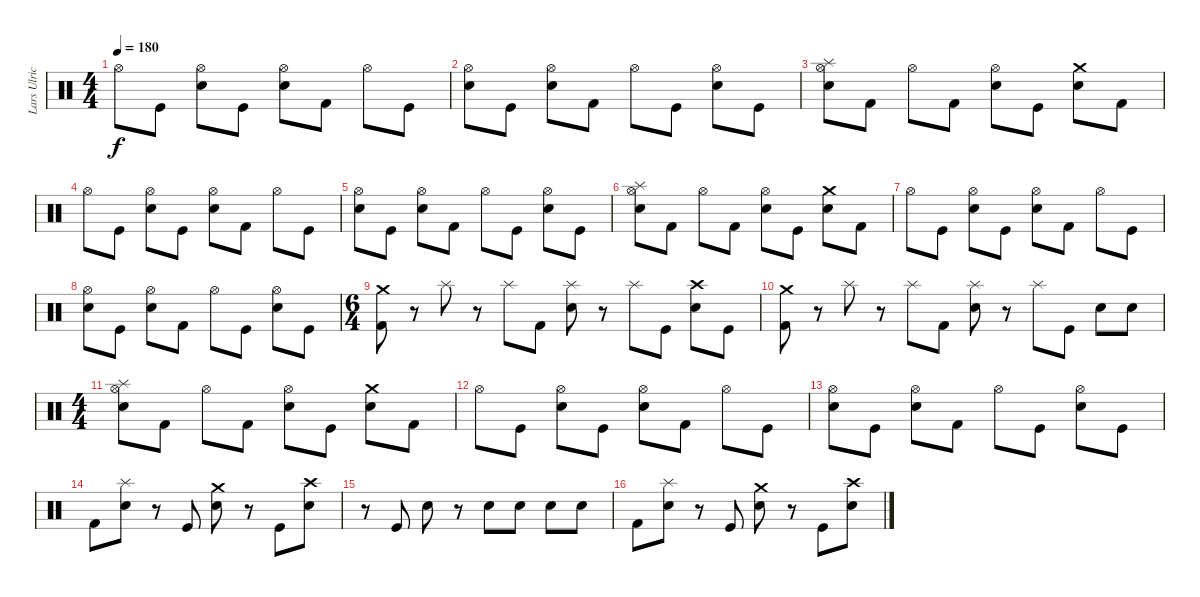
\track ("Lars Ulrich" "Lars Ulric") {instrument percussion}
\staff {score}
\articulation defaults
\ts (4 4)
\tempo 180
\clef neutral
\ks c "Hi-Hat (open)".8{dy f} "Kick (hit)".8
("Hi-Hat (open)" "Electric Snare (hit)").8 "Kick (hit)".8 ("Hi-Hat (open)" "Electric Snare (hit)").8 "Kick (hit) 2".8 "Hi-Hat (open)".8 "Kick (hit)".8 |
("Hi-Hat (open)" "Electric Snare (hit)").8 "Kick (hit)".8 ("Hi-Hat (open)" "Electric Snare (hit)").8 "Kick (hit) 2".8 "Hi-Hat (open)".8 "Kick (hit)".8 ("Hi-Hat (open)" "Electric Snare (hit)").8 "Kick (hit)".8 |
("Splash (hit)" "Hi-Hat (open)" "Electric Snare (hit)").8 "Kick (hit) 2".8 "Hi-Hat (open)".8 "Kick (hit) 2".8 ("Hi-Hat (open)" "Electric Snare (hit)").8 "Kick (hit)".8 ("Crash medium (hit)" "Electric Snare (hit)").8 "Kick (hit) 2".8 |
"Hi-Hat (open)".8 "Kick (hit)".8 ("Hi-Hat (open)" "Electric Snare (hit)").8 "Kick (hit)".8 ("Hi-Hat (open)" "Electric Snare (hit)").8 "Kick (hit) 2".8 "Hi-Hat (open)".8 "Kick (hit)".8 |
("Hi-Hat (open)" "Electric Snare (hit)").8 "Kick (hit)".8 ("Hi-Hat (open)" "Electric Snare (hit)").8 "Kick (hit) 2".8 "Hi-Hat (open)".8 "Kick (hit)".8 ("Hi-Hat (open)" "Electric Snare (hit)").8 "Kick (hit)".8 |
("Splash (hit)" "Hi-Hat (open)" "Electric Snare (hit)").8 "Kick (hit) 2".8 "Hi-Hat (open)".8 "Kick (hit) 2".8 ("Hi-Hat (open)" "Electric Snare (hit)").8 "Kick (hit)".8 ("Crash medium (hit)" "Electric Snare (hit)").8 "Kick (hit) 2".8 |
"Hi-Hat (open)".8 "Kick (hit)".8 ("Hi-Hat (open)" "Electric Snare (hit)").8 "Kick (hit)".8 ("Hi-Hat (open)" "Electric Snare (hit)").8 "Kick (hit) 2".8 "Hi-Hat (open)".8 "Kick (hit)".8 |
("Hi-Hat (open)" "Electric Snare (hit)").8 "Kick (hit)".8 ("Hi-Hat (open)" "Electric Snare (hit)").8 "Kick (hit) 2".8 "Hi-Hat (open)".8 "Kick (hit)".8 ("Hi-Hat (open)" "Electric Snare (hit)").8 "Kick (hit)".8 |
\ts (6 4)
("Crash medium (hit)" "Kick (hit) 2").8 r.8 "Splash (hit)".8 r.8 "Splash (hit)".8 "Kick (hit) 2".8 ("Splash (hit)" "Electric Snare (hit)").8 r.8 "Splash (hit)".8 "Kick (hit)".8 ("Crash high (hit)" "Electric Snare (hit)").8 "Kick (hit)".8 |
("Crash medium (hit)" "Kick (hit) 2").8 r.8 "Splash (hit)".8 r.8 "Splash (hit)".8 "Kick (hit) 2".8 ("Splash (hit)" "Electric Snare (hit)").8 r.8 "Splash (hit)".8 "Kick (hit)".8 "Electric Snare (hit)".8 "Electric Snare (hit)".8 |
\ts (4 4)
("Splash (hit)" "Hi-Hat (open)" "Electric Snare (hit)").8 "Kick (hit) 2".8 "Hi-Hat (open)".8 "Kick (hit) 2".8 ("Hi-Hat (open)" "Electric Snare (hit)").8 "Kick (hit)".8 ("Crash medium (hit)" "Electric Snare (hit)").8 "Kick (hit) 2".8 |
"Hi-Hat (open)".8 "Kick (hit)".8 ("Hi-Hat (open)" "Electric Snare (hit)").8 "Kick (hit)".8 ("Hi-Hat (open)" "Electric Snare (hit)").8 "Kick (hit) 2".8 "Hi-Hat (open)".8 "Kick (hit)".8 |
("Hi-Hat (open)" "Electric Snare (hit)").8 "Kick (hit)".8 ("Hi-Hat (open)" "Electric Snare (hit)").8 "Kick (hit) 2".8 "Hi-Hat (open)".8 "Kick (hit)".8 ("Hi-Hat (open)" "Electric Snare (hit)").8 "Kick (hit)".8 |
"Kick (hit) 2".8 ("Splash (hit)" "Electric Snare (hit)").8 r.8 "Kick (hit)".8 ("Crash medium (hit)" "Electric Snare (hit)").8 r.8 "Kick (hit)".8 ("Crash high (hit)" "Electric Snare (hit)").8 |
r.8 "Kick (hit)".8 "Electric Snare (hit)".8 r.8 "Electric Snare (hit)".8 "Electric Snare (hit)".8 "Electric Snare (hit)".8 "Electric Snare (hit)".8 |
"Kick (hit) 2".8 ("Splash (hit)" "Electric Snare (hit)").8 r.8 "Kick (hit)".8 ("Crash medium (hit)" "Electric Snare (hit)").8 r.8 "Kick (hit)".8 ("Crash high (hit)" "Electric Snare (hit)").8
